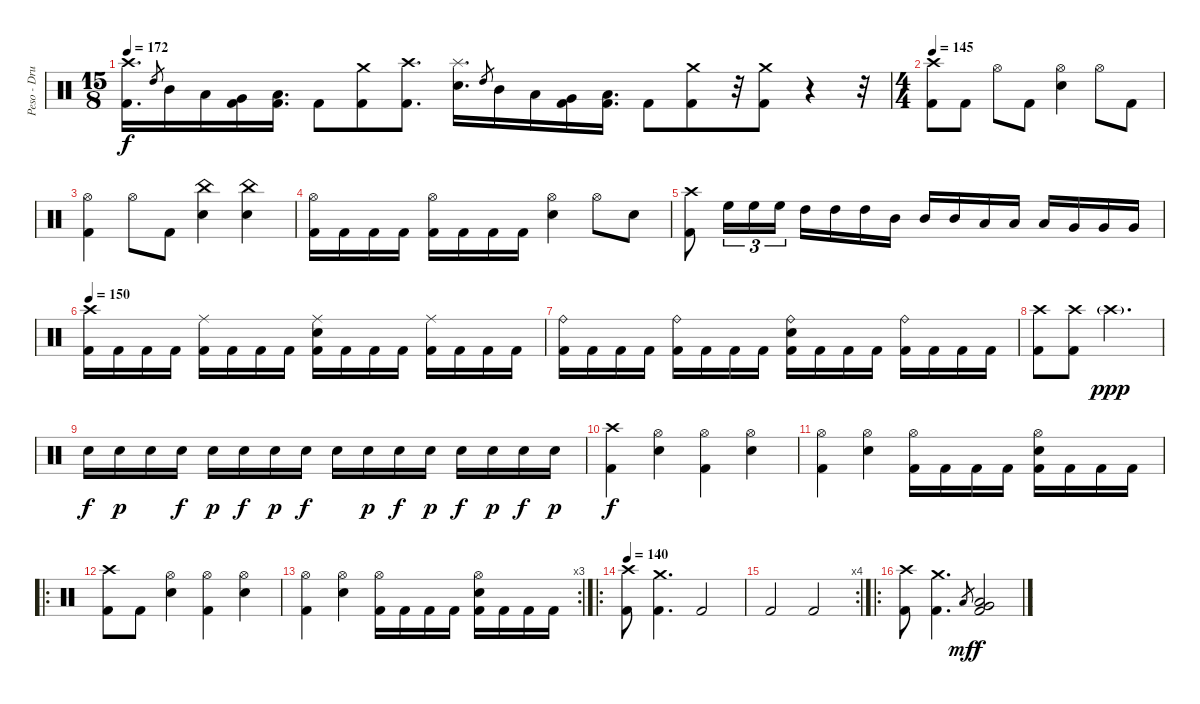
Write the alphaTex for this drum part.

\track ("Peso - Drums" "Peso - Dru") {instrument percussion}
\staff {score}
\articulation defaults
\ts (15 8)
\tempo 172
\clef neutral
\ks c
("Crash high (hit)" "Kick (hit) 2").16{d dy f} "High Tom (hit)".8{gr} "Mid Tom (hit)".16 "Low Tom (hit)".16 ("Very Low Tom (hit)" "Kick (hit) 2").16 ("Low Floor Tom (hit)" "Kick (hit) 2").16{d} "Kick (hit) 2".8 ("Crash medium (hit)" "Kick (hit) 2").8 ("Crash high (hit)" "Kick (hit) 2").8{d} ("Splash (hit)" "Electric Snare (hit)").16{d} "High Tom (hit)".8{gr} "Mid Tom (hit)".16 "Low Tom (hit)".16 ("Very Low Tom (hit)" "Kick (hit) 2").16 ("Low Floor Tom (hit)" "Kick (hit) 2").16{d} "Kick (hit) 2".8 ("Crash medium (hit)" "Kick (hit) 2").8 r.32 ("Crash medium (hit)" "Kick (hit) 2").8 r.4 r.32 |
\ts (4 4)
\tempo 145
("Crash high (hit)" "Kick (hit) 2").8 "Kick (hit) 2".8 "Hi-Hat (open)".8 "Kick (hit) 2".8 ("Hi-Hat (open)" "Electric Snare (hit)").4 "Hi-Hat (open)".8 "Kick (hit) 2".8 |
("Hi-Hat (open)" "Kick (hit) 2").4 "Hi-Hat (open)".8 "Kick (hit) 2".8 ("China (hit)" "Electric Snare (hit)").4 ("China (hit)" "Electric Snare (hit)").4 |
("Hi-Hat (open)" "Kick (hit) 2").16 "Kick (hit) 2".16 "Kick (hit) 2".16 "Kick (hit) 2".16 ("Hi-Hat (open)" "Kick (hit) 2").16 "Kick (hit) 2".16 "Kick (hit) 2".16 "Kick (hit) 2".16 ("Hi-Hat (open)" "Electric Snare (hit)").4 "Hi-Hat (open)".8 "Electric Snare (hit)".8 |
("Crash high (hit)" "Kick (hit) 2").8 "High Floor Tom (hit)".16{tu (3 2)} "High Floor Tom (hit)".16{tu (3 2)} "High Floor Tom (hit)".16{tu (3 2)} "High Tom (hit)".16 "High Tom (hit)".16 "High Tom (hit)".16 "Mid Tom (hit)".16 "Mid Tom (hit)".16 "Mid Tom (hit)".16 "Low Tom (hit)".16 "Low Tom (hit)".16 "Low Tom (hit)".16 "Very Low Tom (hit)".16 "Very Low Tom (hit)".16 "Very Low Tom (hit)".16 |
\tempo 150
("Crash high (hit)" "Kick (hit) 2").16 "Kick (hit) 2".16 "Kick (hit) 2".16 "Kick (hit) 2".16 ("Ride (middle)" "Kick (hit) 2").16 "Kick (hit) 2".16 "Kick (hit) 2".16 "Kick (hit) 2".16 ("Ride (middle)" "Electric Snare (hit)" "Kick (hit) 2").16 "Kick (hit) 2".16 "Kick (hit) 2".16 "Kick (hit) 2".16 ("Ride (middle)" "Kick (hit) 2").16 "Kick (hit) 2".16 "Kick (hit) 2".16 "Kick (hit) 2".16 |
("Ride (bell)" "Kick (hit) 2").16 "Kick (hit) 2".16 "Kick (hit) 2".16 "Kick (hit) 2".16 ("Ride (bell)" "Kick (hit) 2").16 "Kick (hit) 2".16 "Kick (hit) 2".16 "Kick (hit) 2".16 ("Ride (bell)" "Electric Snare (hit)" "Kick (hit) 2").16 "Kick (hit) 2".16 "Kick (hit) 2".16 "Kick (hit) 2".16 ("Ride (bell)" "Kick (hit) 2").16 "Kick (hit) 2".16 "Kick (hit) 2".16 "Kick (hit) 2".16 |
("Crash high (hit)" "Kick (hit) 2").8 ("Crash high (hit)" "Kick (hit) 2").8 "Crash high (hit)"{g}.2{d dy ppp} |
"Electric Snare (hit)".16{dy f} "Electric Snare (hit)".16{dy p} "Electric Snare (hit)".16 "Electric Snare (hit)".16{dy f} "Electric Snare (hit)".16{dy p} "Electric Snare (hit)".16{dy f} "Electric Snare (hit)".16{dy p} "Electric Snare (hit)".16{dy f} "Electric Snare (hit)".16 "Electric Snare (hit)".16{dy p} "Electric Snare (hit)".16{dy f} "Electric Snare (hit)".16{dy p} "Electric Snare (hit)".16{dy f} "Electric Snare (hit)".16{dy p} "Electric Snare (hit)".16{dy f} "Electric Snare (hit)".16{dy p} |
("Crash high (hit)" "Kick (hit) 2").4{dy f} ("Hi-Hat (open)" "Electric Snare (hit)").4 ("Hi-Hat (open)" "Kick (hit) 2").4 ("Hi-Hat (open)" "Electric Snare (hit)").4 |
("Hi-Hat (open)" "Kick (hit) 2").4 ("Hi-Hat (open)" "Electric Snare (hit)").4 ("Hi-Hat (open)" "Kick (hit) 2").16 "Kick (hit) 2".16 "Kick (hit) 2".16 "Kick (hit) 2".16 ("Hi-Hat (open)" "Electric Snare (hit)" "Kick (hit) 2").16 "Kick (hit) 2".16 "Kick (hit) 2".16 "Kick (hit) 2".16 |
\ro
("Crash high (hit)" "Kick (hit) 2").8 "Kick (hit) 2".8 ("Hi-Hat (open)" "Electric Snare (hit)").4 ("Hi-Hat (open)" "Kick (hit) 2").4 ("Hi-Hat (open)" "Electric Snare (hit)").4 |
\rc 3
("Hi-Hat (open)" "Kick (hit) 2").4 ("Hi-Hat (open)" "Electric Snare (hit)").4 ("Hi-Hat (open)" "Kick (hit) 2").16 "Kick (hit) 2".16 "Kick (hit) 2".16 "Kick (hit) 2".16 ("Hi-Hat (open)" "Electric Snare (hit)" "Kick (hit) 2").16 "Kick (hit) 2".16 "Kick (hit) 2".16 "Kick (hit) 2".16 |
\ro
\tempo 140
("Crash high (hit)" "Kick (hit) 2").8 ("Crash medium (hit)" "Kick (hit) 2").4{d} "Kick (hit) 2".2 |
\rc 4 "Kick (hit) 2".2 "Kick (hit) 2".2
|
\ro
("Crash high (hit)" "Kick (hit) 2").8 ("Crash medium (hit)" "Kick (hit) 2").4{d} "Low Floor Tom (hit)".8{gr dy mf} ("Very Low Tom (hit)" "Low Floor Tom (hit)" "Kick (hit) 2").2{dy f}
